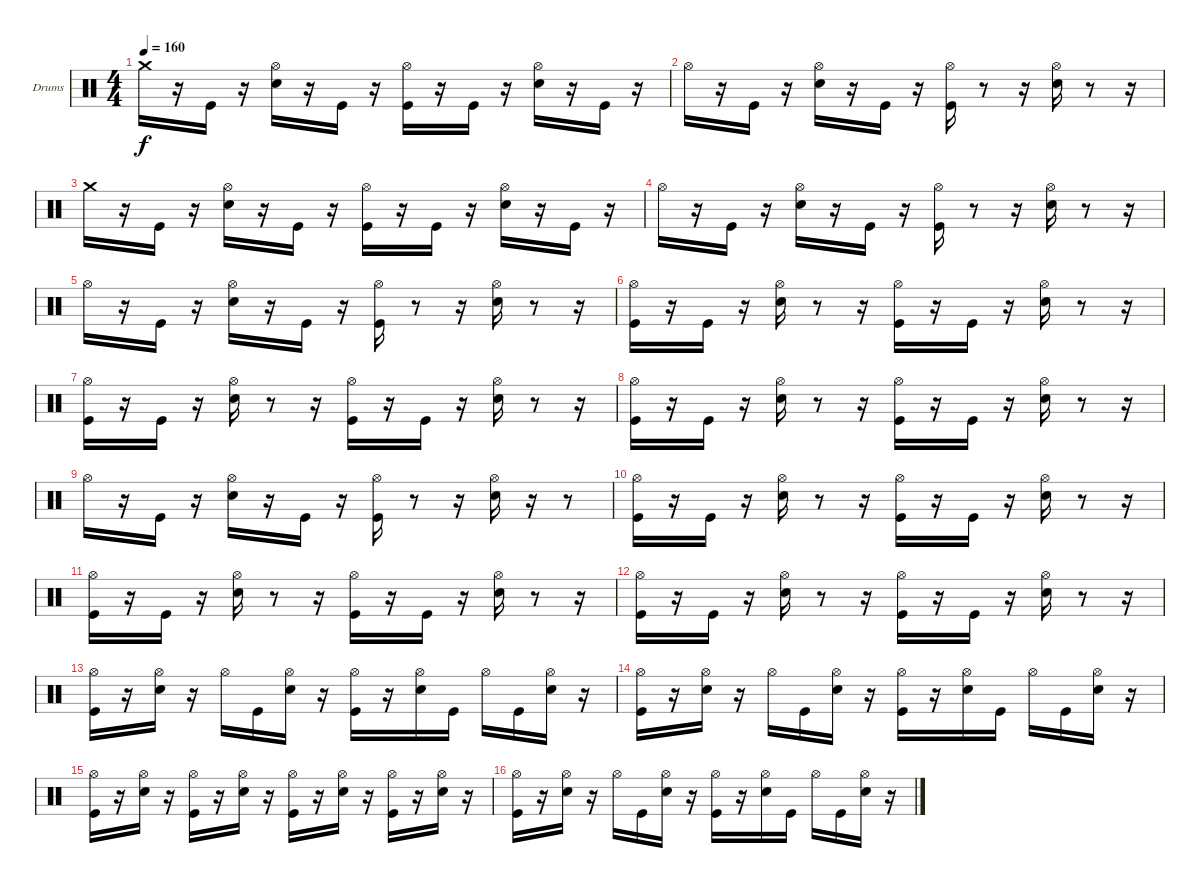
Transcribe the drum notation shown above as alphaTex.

\defaultSystemsLayout 4
\bracketExtendMode groupsimilarinstruments
\firstSystemTrackNameOrientation horizontal
\otherSystemsTrackNameOrientation horizontal
\track ("Drumkit" "Drums") {instrument percussion}
\staff {score}
\articulation defaults
\ts (4 4)
\tempo 160
\clef neutral
\ks c "Crash medium (hit)".16{dy f}
r.16 "Kick (hit)".16 r.16 ("Hi-Hat (open)" "Snare (hit) 2").16 r.16 "Kick (hit)".16 r.16 ("Hi-Hat (open)" "Kick (hit)").16 r.16 "Kick (hit)".16 r.16 ("Hi-Hat (open)" "Snare (hit) 2").16 r.16 "Kick (hit)".16 r.16 |
"Hi-Hat (open)".16 r.16 "Kick (hit)".16 r.16 ("Hi-Hat (open)" "Snare (hit) 2").16 r.16 "Kick (hit)".16 r.16 ("Hi-Hat (open)" "Kick (hit)").16 r.8 r.16 ("Hi-Hat (open)" "Snare (hit) 2").16 r.8 r.16 |
"Crash medium (hit)".16 r.16 "Kick (hit)".16 r.16 ("Hi-Hat (open)" "Snare (hit) 2").16 r.16 "Kick (hit)".16 r.16 ("Hi-Hat (open)" "Kick (hit)").16 r.16 "Kick (hit)".16 r.16 ("Hi-Hat (open)" "Snare (hit) 2").16 r.16 "Kick (hit)".16 r.16 |
"Hi-Hat (open)".16 r.16 "Kick (hit)".16 r.16 ("Hi-Hat (open)" "Snare (hit) 2").16 r.16 "Kick (hit)".16 r.16 ("Hi-Hat (open)" "Kick (hit)").16 r.8 r.16 ("Hi-Hat (open)" "Snare (hit) 2").16 r.8 r.16 |
"Hi-Hat (open)".16 r.16 "Kick (hit)".16 r.16 ("Hi-Hat (open)" "Snare (hit) 2").16 r.16 "Kick (hit)".16 r.16 ("Hi-Hat (open)" "Kick (hit)").16 r.8 r.16 ("Hi-Hat (open)" "Snare (hit) 2").16 r.8 r.16 |
("Hi-Hat (open)" "Kick (hit)").16 r.16 "Kick (hit)".16 r.16 ("Hi-Hat (open)" "Snare (hit) 2").16 r.8 r.16 ("Hi-Hat (open)" "Kick (hit)").16 r.16 "Kick (hit)".16 r.16 ("Hi-Hat (open)" "Snare (hit) 2").16 r.8 r.16 |
("Hi-Hat (open)" "Kick (hit)").16 r.16 "Kick (hit)".16 r.16 ("Hi-Hat (open)" "Snare (hit) 2").16 r.8 r.16 ("Hi-Hat (open)" "Kick (hit)").16 r.16 "Kick (hit)".16 r.16 ("Hi-Hat (open)" "Snare (hit) 2").16 r.8 r.16 |
("Hi-Hat (open)" "Kick (hit)").16 r.16 "Kick (hit)".16 r.16 ("Hi-Hat (open)" "Snare (hit) 2").16 r.8 r.16 ("Hi-Hat (open)" "Kick (hit)").16 r.16 "Kick (hit)".16 r.16 ("Hi-Hat (open)" "Snare (hit) 2").16 r.8 r.16 |
"Hi-Hat (open)".16 r.16 "Kick (hit)".16 r.16 ("Hi-Hat (open)" "Snare (hit) 2").16 r.16 "Kick (hit)".16 r.16 ("Hi-Hat (open)" "Kick (hit)").16 r.8 r.16 ("Hi-Hat (open)" "Snare (hit) 2").16 r.16 r.8 |
("Hi-Hat (open)" "Kick (hit)").16 r.16 "Kick (hit)".16 r.16 ("Hi-Hat (open)" "Snare (hit) 2").16 r.8 r.16 ("Hi-Hat (open)" "Kick (hit)").16 r.16 "Kick (hit)".16 r.16 ("Hi-Hat (open)" "Snare (hit) 2").16 r.8 r.16 |
("Hi-Hat (open)" "Kick (hit)").16 r.16 "Kick (hit)".16 r.16 ("Hi-Hat (open)" "Snare (hit) 2").16 r.8 r.16 ("Hi-Hat (open)" "Kick (hit)").16 r.16 "Kick (hit)".16 r.16 ("Hi-Hat (open)" "Snare (hit) 2").16 r.8 r.16 |
("Hi-Hat (open)" "Kick (hit)").16 r.16 "Kick (hit)".16 r.16 ("Hi-Hat (open)" "Snare (hit) 2").16 r.8 r.16 ("Hi-Hat (open)" "Kick (hit)").16 r.16 "Kick (hit)".16 r.16 ("Hi-Hat (open)" "Snare (hit) 2").16 r.8 r.16 |
("Hi-Hat (open)" "Kick (hit)").16 r.16 ("Hi-Hat (open)" "Snare (hit) 2").16 r.16 "Hi-Hat (open)".16 "Kick (hit)".16 ("Hi-Hat (open)" "Snare (hit) 2").16 r.16 ("Hi-Hat (open)" "Kick (hit)").16 r.16 ("Hi-Hat (open)" "Snare (hit) 2").16 "Kick (hit)".16 "Hi-Hat (open)".16 "Kick (hit)".16 ("Hi-Hat (open)" "Snare (hit) 2").16 r.16 |
("Hi-Hat (open)" "Kick (hit)").16 r.16 ("Hi-Hat (open)" "Snare (hit) 2").16 r.16 "Hi-Hat (open)".16 "Kick (hit)".16 ("Hi-Hat (open)" "Snare (hit) 2").16 r.16 ("Hi-Hat (open)" "Kick (hit)").16 r.16 ("Hi-Hat (open)" "Snare (hit) 2").16 "Kick (hit)".16 "Hi-Hat (open)".16 "Kick (hit)".16 ("Hi-Hat (open)" "Snare (hit) 2").16 r.16 |
("Hi-Hat (open)" "Kick (hit)").16 r.16 ("Hi-Hat (open)" "Snare (hit) 2").16 r.16 ("Hi-Hat (open)" "Kick (hit)").16 r.16 ("Hi-Hat (open)" "Snare (hit) 2").16 r.16 ("Hi-Hat (open)" "Kick (hit)").16 r.16 ("Hi-Hat (open)" "Snare (hit) 2").16 r.16 ("Hi-Hat (open)" "Kick (hit)").16 r.16 ("Hi-Hat (open)" "Snare (hit) 2").16 r.16 |
("Hi-Hat (open)" "Kick (hit)").16 r.16 ("Hi-Hat (open)" "Snare (hit) 2").16 r.16 "Hi-Hat (open)".16 "Kick (hit)".16 ("Hi-Hat (open)" "Snare (hit) 2").16 r.16 ("Hi-Hat (open)" "Kick (hit)").16 r.16 ("Hi-Hat (open)" "Snare (hit) 2").16 "Kick (hit)".16 "Hi-Hat (open)".16 "Kick (hit)".16 ("Hi-Hat (open)" "Snare (hit) 2").16 r.16
